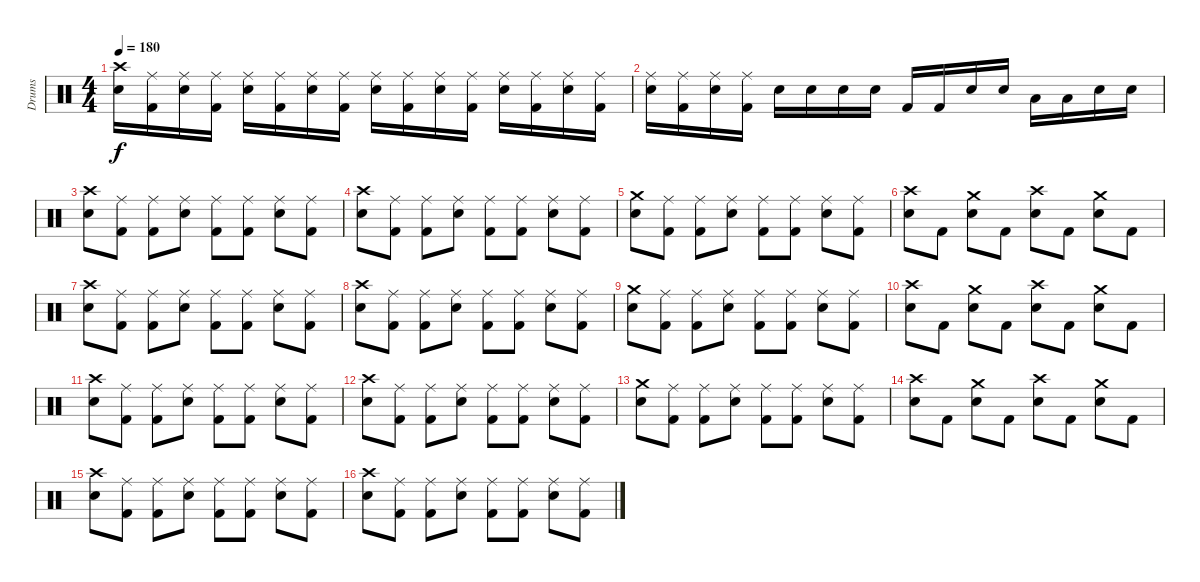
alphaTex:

\track ("Drums" "Drums") {instrument percussion}
\staff {score}
\articulation defaults
\ts (4 4)
\tempo 180
\clef neutral
\ks c
("Crash high (hit)" "Snare (hit) 2").16{dy f} ("Ride (middle)" "Kick (hit) 2").16 ("Ride (middle)" "Snare (hit) 2").16 ("Ride (middle)" "Kick (hit) 2").16 ("Ride (middle)" "Snare (hit) 2").16 ("Ride (middle)" "Kick (hit) 2").16 ("Ride (middle)" "Snare (hit) 2").16 ("Ride (middle)" "Kick (hit) 2").16 ("Ride (middle)" "Snare (hit) 2").16 ("Ride (middle)" "Kick (hit) 2").16 ("Ride (middle)" "Snare (hit) 2").16 ("Ride (middle)" "Kick (hit) 2").16 ("Ride (middle)" "Snare (hit) 2").16 ("Ride (middle)" "Kick (hit) 2").16 ("Ride (middle)" "Snare (hit) 2").16 ("Ride (middle)" "Kick (hit) 2").16 |
("Snare (hit) 2" "Ride (middle)").16 ("Kick (hit) 2" "Ride (middle)").16 ("Snare (hit) 2" "Ride (middle)").16 ("Kick (hit) 2" "Ride (middle)").16 "Snare (hit) 2".16 "Snare (hit) 2".16 "Snare (hit) 2".16 "Snare (hit) 2".16 "Kick (hit) 2".16 "Kick (hit) 2".16 "Snare (hit) 2".16 "Snare (hit) 2".16 "Low Tom (hit)".16 "Low Tom (hit)".16 "Snare (hit) 2".16 "Snare (hit) 2".16 |
("Crash high (hit)" "Snare (hit) 2").8 ("Ride (middle)" "Kick (hit) 2").8 ("Ride (middle)" "Kick (hit) 2").8 ("Ride (middle)" "Snare (hit) 2").8 ("Ride (middle)" "Kick (hit) 2").8 ("Ride (middle)" "Kick (hit) 2").8 ("Ride (middle)" "Snare (hit) 2").8 ("Ride (middle)" "Kick (hit) 2").8 |
("Crash high (hit)" "Snare (hit) 2").8 ("Ride (middle)" "Kick (hit) 2").8 ("Ride (middle)" "Kick (hit) 2").8 ("Ride (middle)" "Snare (hit) 2").8 ("Ride (middle)" "Kick (hit) 2").8 ("Ride (middle)" "Kick (hit) 2").8 ("Ride (middle)" "Snare (hit) 2").8 ("Ride (middle)" "Kick (hit) 2").8 |
("Crash medium (hit)" "Snare (hit) 2").8 ("Ride (middle)" "Kick (hit) 2").8 ("Ride (middle)" "Kick (hit) 2").8 ("Ride (middle)" "Snare (hit) 2").8 ("Ride (middle)" "Kick (hit) 2").8 ("Ride (middle)" "Kick (hit) 2").8 ("Ride (middle)" "Snare (hit) 2").8 ("Ride (middle)" "Kick (hit) 2").8 |
("Snare (hit) 2" "Crash high (hit)").8 "Kick (hit) 2".8 ("Snare (hit) 2" "Crash medium (hit)").8 "Kick (hit) 2".8 ("Crash high (hit)" "Snare (hit) 2").8 "Kick (hit) 2".8 ("Snare (hit) 2" "Crash medium (hit)").8 "Kick (hit) 2".8 |
("Crash high (hit)" "Snare (hit) 2").8 ("Ride (middle)" "Kick (hit) 2").8 ("Ride (middle)" "Kick (hit) 2").8 ("Ride (middle)" "Snare (hit) 2").8 ("Ride (middle)" "Kick (hit) 2").8 ("Ride (middle)" "Kick (hit) 2").8 ("Ride (middle)" "Snare (hit) 2").8 ("Ride (middle)" "Kick (hit) 2").8 |
("Crash high (hit)" "Snare (hit) 2").8 ("Ride (middle)" "Kick (hit) 2").8 ("Ride (middle)" "Kick (hit) 2").8 ("Ride (middle)" "Snare (hit) 2").8 ("Ride (middle)" "Kick (hit) 2").8 ("Ride (middle)" "Kick (hit) 2").8 ("Ride (middle)" "Snare (hit) 2").8 ("Ride (middle)" "Kick (hit) 2").8 |
("Crash medium (hit)" "Snare (hit) 2").8 ("Ride (middle)" "Kick (hit) 2").8 ("Ride (middle)" "Kick (hit) 2").8 ("Ride (middle)" "Snare (hit) 2").8 ("Ride (middle)" "Kick (hit) 2").8 ("Ride (middle)" "Kick (hit) 2").8 ("Ride (middle)" "Snare (hit) 2").8 ("Ride (middle)" "Kick (hit) 2").8 |
("Snare (hit) 2" "Crash high (hit)").8 "Kick (hit) 2".8 ("Snare (hit) 2" "Crash medium (hit)").8 "Kick (hit) 2".8 ("Crash high (hit)" "Snare (hit) 2").8 "Kick (hit) 2".8 ("Snare (hit) 2" "Crash medium (hit)").8 "Kick (hit) 2".8 |
("Crash high (hit)" "Snare (hit) 2").8 ("Ride (middle)" "Kick (hit) 2").8 ("Ride (middle)" "Kick (hit) 2").8 ("Ride (middle)" "Snare (hit) 2").8 ("Ride (middle)" "Kick (hit) 2").8 ("Ride (middle)" "Kick (hit) 2").8 ("Ride (middle)" "Snare (hit) 2").8 ("Ride (middle)" "Kick (hit) 2").8 |
("Crash high (hit)" "Snare (hit) 2").8 ("Ride (middle)" "Kick (hit) 2").8 ("Ride (middle)" "Kick (hit) 2").8 ("Ride (middle)" "Snare (hit) 2").8 ("Ride (middle)" "Kick (hit) 2").8 ("Ride (middle)" "Kick (hit) 2").8 ("Ride (middle)" "Snare (hit) 2").8 ("Ride (middle)" "Kick (hit) 2").8 |
("Crash medium (hit)" "Snare (hit) 2").8 ("Ride (middle)" "Kick (hit) 2").8 ("Ride (middle)" "Kick (hit) 2").8 ("Ride (middle)" "Snare (hit) 2").8 ("Ride (middle)" "Kick (hit) 2").8 ("Ride (middle)" "Kick (hit) 2").8 ("Ride (middle)" "Snare (hit) 2").8 ("Ride (middle)" "Kick (hit) 2").8 |
("Snare (hit) 2" "Crash high (hit)").8 "Kick (hit) 2".8 ("Snare (hit) 2" "Crash medium (hit)").8 "Kick (hit) 2".8 ("Crash high (hit)" "Snare (hit) 2").8 "Kick (hit) 2".8 ("Snare (hit) 2" "Crash medium (hit)").8 "Kick (hit) 2".8 |
("Crash high (hit)" "Snare (hit) 2").8 ("Ride (middle)" "Kick (hit) 2").8 ("Ride (middle)" "Kick (hit) 2").8 ("Ride (middle)" "Snare (hit) 2").8 ("Ride (middle)" "Kick (hit) 2").8 ("Ride (middle)" "Kick (hit) 2").8 ("Ride (middle)" "Snare (hit) 2").8 ("Ride (middle)" "Kick (hit) 2").8 |
("Crash high (hit)" "Snare (hit) 2").8 ("Ride (middle)" "Kick (hit) 2").8 ("Ride (middle)" "Kick (hit) 2").8 ("Ride (middle)" "Snare (hit) 2").8 ("Ride (middle)" "Kick (hit) 2").8 ("Ride (middle)" "Kick (hit) 2").8 ("Ride (middle)" "Snare (hit) 2").8 ("Ride (middle)" "Kick (hit) 2").8
